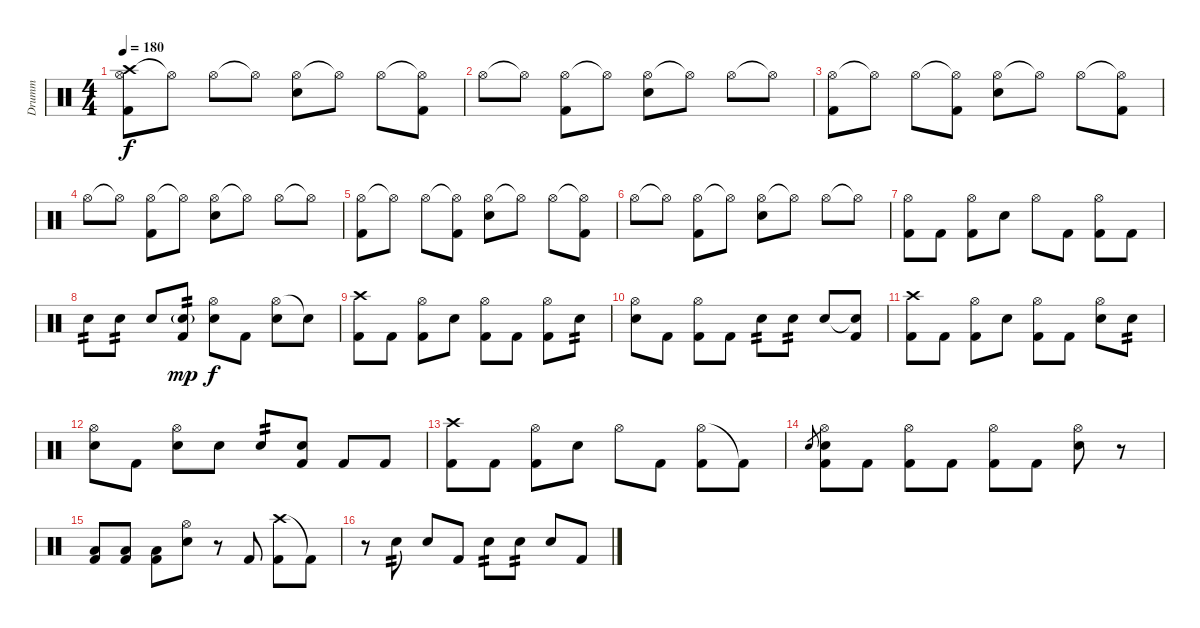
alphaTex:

\track ("Drumm" "Drumm") {instrument percussion}
\staff {score}
\articulation defaults
\ts (4 4)
\tempo 180
\clef neutral
\ks c
("Crash high (hit)" "Hi-Hat (open)" "Kick (hit) 2").8{dy f} "Hi-Hat (open)"{t}.8 "Hi-Hat (open)".8 "Hi-Hat (open)"{t}.8 ("Hi-Hat (open)" "Snare (hit) 2").8 "Hi-Hat (open)"{t}.8 "Hi-Hat (open)".8 ("Hi-Hat (open)"{t} "Kick (hit) 2").8 |
"Hi-Hat (open)".8 "Hi-Hat (open)"{t}.8 ("Hi-Hat (open)" "Kick (hit) 2").8 "Hi-Hat (open)"{t}.8 ("Hi-Hat (open)" "Snare (hit) 2").8 "Hi-Hat (open)"{t}.8 "Hi-Hat (open)".8 "Hi-Hat (open)"{t}.8 |
("Hi-Hat (open)" "Kick (hit) 2").8 "Hi-Hat (open)"{t}.8 "Hi-Hat (open)".8 ("Hi-Hat (open)"{t} "Kick (hit) 2").8 ("Hi-Hat (open)" "Snare (hit) 2").8 "Hi-Hat (open)"{t}.8 "Hi-Hat (open)".8 ("Hi-Hat (open)"{t} "Kick (hit) 2").8 |
"Hi-Hat (open)".8 "Hi-Hat (open)"{t}.8 ("Hi-Hat (open)" "Kick (hit) 2").8 "Hi-Hat (open)"{t}.8 ("Hi-Hat (open)" "Snare (hit) 2").8 "Hi-Hat (open)"{t}.8 "Hi-Hat (open)".8 "Hi-Hat (open)"{t}.8 |
("Hi-Hat (open)" "Kick (hit) 2").8 "Hi-Hat (open)"{t}.8 "Hi-Hat (open)".8 ("Hi-Hat (open)"{t} "Kick (hit) 2").8 ("Hi-Hat (open)" "Snare (hit) 2").8 "Hi-Hat (open)"{t}.8 "Hi-Hat (open)".8 ("Hi-Hat (open)"{t} "Kick (hit) 2").8 |
"Hi-Hat (open)".8 "Hi-Hat (open)"{t}.8 ("Hi-Hat (open)" "Kick (hit) 2").8 "Hi-Hat (open)"{t}.8 ("Hi-Hat (open)" "Snare (hit) 2").8 "Hi-Hat (open)"{t}.8 "Hi-Hat (open)".8 "Hi-Hat (open)"{t}.8 |
("Hi-Hat (open)" "Kick (hit) 2").8 "Kick (hit) 2".8 ("Hi-Hat (open)" "Kick (hit) 2").8 "Snare (hit) 2".8 "Hi-Hat (open)".8 "Kick (hit) 2".8 ("Hi-Hat (open)" "Kick (hit) 2").8 "Kick (hit) 2".8 |
"Snare (hit) 2".8{tp 2} "Snare (hit) 2".8{tp 2} "Snare (hit) 2".8 ("Snare (hit) 2"{g} "Kick (hit) 2").8{tp 2 dy mp} ("Hi-Hat (open)" "Snare (hit) 2").8{dy f} "Kick (hit) 2".8 ("Hi-Hat (open)" "Snare (hit) 2").8 "Snare (hit) 2"{t}.8 |
("Crash high (hit)" "Kick (hit) 2").8 "Kick (hit) 2".8 ("Hi-Hat (open)" "Kick (hit) 2").8 "Snare (hit) 2".8 ("Hi-Hat (open)" "Kick (hit) 2").8 "Kick (hit) 2".8 ("Hi-Hat (open)" "Kick (hit) 2").8 "Snare (hit) 2".8{tp 2} |
("Hi-Hat (open)" "Snare (hit) 2").8 "Kick (hit) 2".8 ("Hi-Hat (open)" "Kick (hit) 2").8 "Kick (hit) 2".8 "Snare (hit) 2".8{tp 2} "Snare (hit) 2".8{tp 2} "Snare (hit) 2".8 ("Snare (hit) 2"{t} "Kick (hit) 2").8 |
("Crash high (hit)" "Kick (hit) 2").8 "Kick (hit) 2".8 ("Hi-Hat (open)" "Kick (hit) 2").8 "Snare (hit) 2".8 ("Hi-Hat (open)" "Kick (hit) 2").8 "Kick (hit) 2".8 ("Hi-Hat (open)" "Snare (hit) 2").8 "Snare (hit) 2".8{tp 2} |
("Hi-Hat (open)" "Snare (hit) 2").8 "Kick (hit) 2".8 ("Hi-Hat (open)" "Snare (hit) 2").8 "Snare (hit) 2".8 "Snare (hit) 2".8{tp 2} ("Snare (hit) 2" "Kick (hit) 2").8 "Kick (hit) 2".8 "Kick (hit) 2".8 |
("Crash high (hit)" "Kick (hit) 2").8 "Kick (hit) 2".8 ("Hi-Hat (open)" "Kick (hit) 2").8 "Snare (hit) 2".8 "Hi-Hat (open)".8 "Kick (hit) 2".8 ("Hi-Hat (open)" "Kick (hit) 2").8 "Kick (hit) 2"{t}.8 |
"Snare (hit) 2".8{gr} ("Hi-Hat (open)" "Snare (hit) 2" "Kick (hit) 2").8 "Kick (hit) 2".8 ("Hi-Hat (open)" "Kick (hit) 2").8 "Kick (hit) 2".8 ("Hi-Hat (open)" "Kick (hit) 2").8 "Kick (hit) 2".8 ("Hi-Hat (open)" "Snare (hit) 2").8 r.8 |
("Low Floor Tom (hit)" "Kick (hit) 2").8 ("Low Floor Tom (hit)" "Kick (hit) 2").8 ("Low Floor Tom (hit)" "Kick (hit) 2").8 ("Hi-Hat (open)" "Snare (hit) 2").8 r.8 "Kick (hit) 2".8 ("Crash high (hit)" "Kick (hit) 2").8 "Kick (hit) 2"{t}.8 |
r.8 "Snare (hit) 2".8{tp 2} "Snare (hit) 2".8 "Kick (hit) 2".8 "Snare (hit) 2".8{tp 2} "Snare (hit) 2".8{tp 2} "Snare (hit) 2".8 "Kick (hit) 2".8
